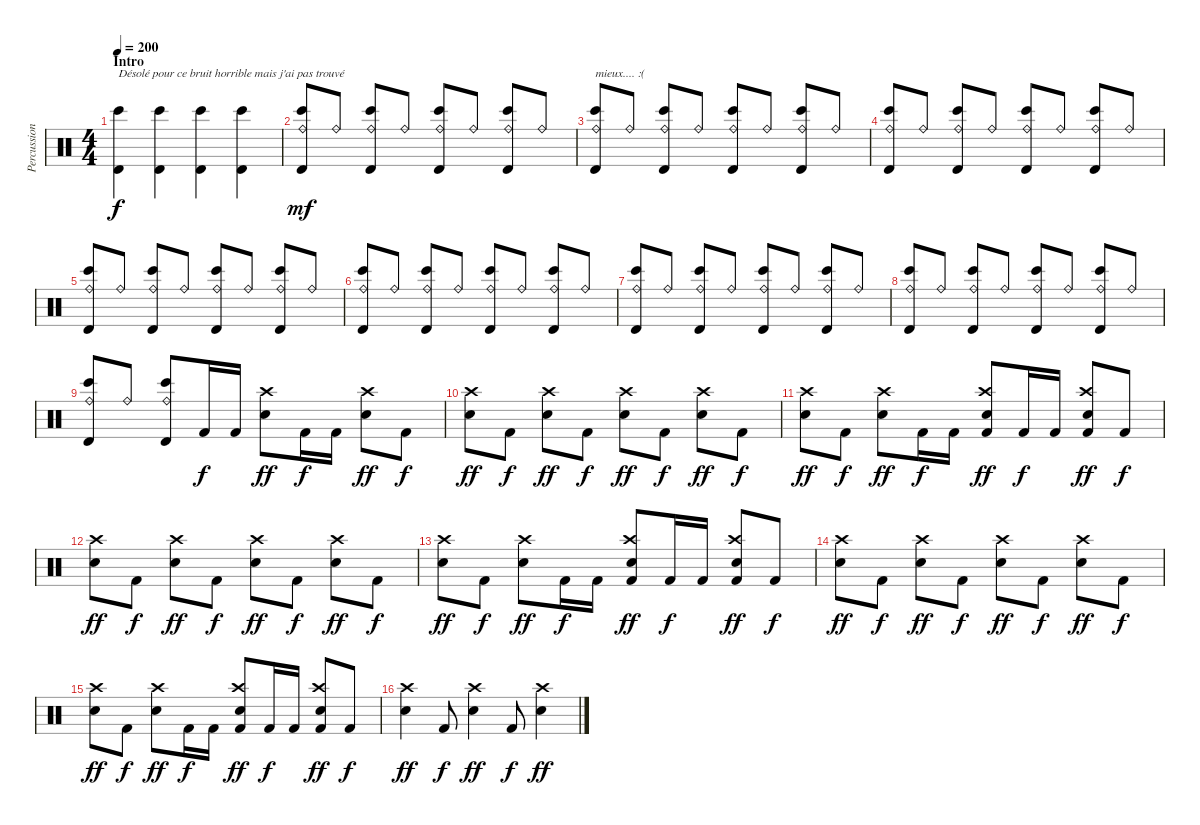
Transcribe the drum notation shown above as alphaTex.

\track ("Percussions" "Percussion") {instrument percussion}
\staff {score}
\articulation defaults
\ts (4 4)
\section ("" "Intro")
\tempo 200
\clef neutral
\ks c
("Timbale high (hit)" "Bongo High (hit)").4{txt "Désolé pour ce bruit horrible mais j'ai pas trouvé" dy f} ("Timbale high (hit)" "Bongo High (hit)").4 ("Timbale high (hit)" "Bongo High (hit)").4 ("Timbale high (hit)" "Bongo High (hit)").4 |
("Ride (bell)" "Timbale high (hit)" "Bongo High (hit)").8{dy mf} "Ride (bell)".8 ("Ride (bell)" "Timbale high (hit)" "Bongo High (hit)").8 "Ride (bell)".8 ("Ride (bell)" "Timbale high (hit)" "Bongo High (hit)").8 "Ride (bell)".8 ("Ride (bell)" "Timbale high (hit)" "Bongo High (hit)").8 "Ride (bell)".8 |
("Ride (bell)" "Timbale high (hit)" "Bongo High (hit)").8{txt "mieux.... :("} "Ride (bell)".8 ("Ride (bell)" "Timbale high (hit)" "Bongo High (hit)").8 "Ride (bell)".8 ("Ride (bell)" "Timbale high (hit)" "Bongo High (hit)").8 "Ride (bell)".8 ("Ride (bell)" "Timbale high (hit)" "Bongo High (hit)").8 "Ride (bell)".8 |
("Ride (bell)" "Timbale high (hit)" "Bongo High (hit)").8 "Ride (bell)".8 ("Ride (bell)" "Timbale high (hit)" "Bongo High (hit)").8 "Ride (bell)".8 ("Ride (bell)" "Timbale high (hit)" "Bongo High (hit)").8 "Ride (bell)".8 ("Ride (bell)" "Timbale high (hit)" "Bongo High (hit)").8 "Ride (bell)".8 |
("Ride (bell)" "Timbale high (hit)" "Bongo High (hit)").8 "Ride (bell)".8 ("Ride (bell)" "Timbale high (hit)" "Bongo High (hit)").8 "Ride (bell)".8 ("Ride (bell)" "Timbale high (hit)" "Bongo High (hit)").8 "Ride (bell)".8 ("Ride (bell)" "Timbale high (hit)" "Bongo High (hit)").8 "Ride (bell)".8 |
("Ride (bell)" "Timbale high (hit)" "Bongo High (hit)").8 "Ride (bell)".8 ("Ride (bell)" "Timbale high (hit)" "Bongo High (hit)").8 "Ride (bell)".8 ("Ride (bell)" "Timbale high (hit)" "Bongo High (hit)").8 "Ride (bell)".8 ("Ride (bell)" "Timbale high (hit)" "Bongo High (hit)").8 "Ride (bell)".8 |
("Ride (bell)" "Timbale high (hit)" "Bongo High (hit)").8 "Ride (bell)".8 ("Ride (bell)" "Timbale high (hit)" "Bongo High (hit)").8 "Ride (bell)".8 ("Ride (bell)" "Timbale high (hit)" "Bongo High (hit)").8 "Ride (bell)".8 ("Ride (bell)" "Timbale high (hit)" "Bongo High (hit)").8 "Ride (bell)".8 |
("Ride (bell)" "Timbale high (hit)" "Bongo High (hit)").8 "Ride (bell)".8 ("Ride (bell)" "Timbale high (hit)" "Bongo High (hit)").8 "Ride (bell)".8 ("Ride (bell)" "Timbale high (hit)" "Bongo High (hit)").8 "Ride (bell)".8 ("Ride (bell)" "Timbale high (hit)" "Bongo High (hit)").8 "Ride (bell)".8 |
("Ride (bell)" "Timbale high (hit)" "Bongo High (hit)").8 "Ride (bell)".8 ("Ride (bell)" "Timbale high (hit)" "Bongo High (hit)").8 "Kick (hit) 2".16{dy f} "Kick (hit) 2".16 ("Crash high (hit)" "Electric Snare (hit)").8{dy ff} "Kick (hit) 2".16{dy f} "Kick (hit) 2".16 ("Crash high (hit)" "Electric Snare (hit)").8{dy ff} "Kick (hit) 2".8{dy f} |
("Crash high (hit)" "Electric Snare (hit)").8{dy ff} "Kick (hit) 2".8{dy f} ("Crash high (hit)" "Electric Snare (hit)").8{dy ff} "Kick (hit) 2".8{dy f} ("Crash high (hit)" "Electric Snare (hit)").8{dy ff} "Kick (hit) 2".8{dy f} ("Crash high (hit)" "Electric Snare (hit)").8{dy ff} "Kick (hit) 2".8{dy f} |
("Crash high (hit)" "Electric Snare (hit)").8{dy ff} "Kick (hit) 2".8{dy f} ("Crash high (hit)" "Electric Snare (hit)").8{dy ff} "Kick (hit) 2".16{dy f} "Kick (hit) 2".16 ("Crash high (hit)" "Electric Snare (hit)" "Kick (hit) 2").8{dy ff} "Kick (hit) 2".16{dy f} "Kick (hit) 2".16 ("Crash high (hit)" "Electric Snare (hit)" "Kick (hit) 2").8{dy ff} "Kick (hit) 2".8{dy f} |
("Crash high (hit)" "Electric Snare (hit)").8{dy ff} "Kick (hit) 2".8{dy f} ("Crash high (hit)" "Electric Snare (hit)").8{dy ff} "Kick (hit) 2".8{dy f} ("Crash high (hit)" "Electric Snare (hit)").8{dy ff} "Kick (hit) 2".8{dy f} ("Crash high (hit)" "Electric Snare (hit)").8{dy ff} "Kick (hit) 2".8{dy f} |
("Crash high (hit)" "Electric Snare (hit)").8{dy ff} "Kick (hit) 2".8{dy f} ("Crash high (hit)" "Electric Snare (hit)").8{dy ff} "Kick (hit) 2".16{dy f} "Kick (hit) 2".16 ("Crash high (hit)" "Electric Snare (hit)" "Kick (hit) 2").8{dy ff} "Kick (hit) 2".16{dy f} "Kick (hit) 2".16 ("Crash high (hit)" "Electric Snare (hit)" "Kick (hit) 2").8{dy ff} "Kick (hit) 2".8{dy f} |
("Crash high (hit)" "Electric Snare (hit)").8{dy ff} "Kick (hit) 2".8{dy f} ("Crash high (hit)" "Electric Snare (hit)").8{dy ff} "Kick (hit) 2".8{dy f} ("Crash high (hit)" "Electric Snare (hit)").8{dy ff} "Kick (hit) 2".8{dy f} ("Crash high (hit)" "Electric Snare (hit)").8{dy ff} "Kick (hit) 2".8{dy f} |
("Crash high (hit)" "Electric Snare (hit)").8{dy ff} "Kick (hit) 2".8{dy f} ("Crash high (hit)" "Electric Snare (hit)").8{dy ff} "Kick (hit) 2".16{dy f} "Kick (hit) 2".16 ("Crash high (hit)" "Electric Snare (hit)" "Kick (hit) 2").8{dy ff} "Kick (hit) 2".16{dy f} "Kick (hit) 2".16 ("Crash high (hit)" "Electric Snare (hit)" "Kick (hit) 2").8{dy ff} "Kick (hit) 2".8{dy f} |
("Crash high (hit)" "Electric Snare (hit)").4{dy ff} "Kick (hit) 2".8{dy f} ("Crash high (hit)" "Electric Snare (hit)").4{dy ff} "Kick (hit) 2".8{dy f} ("Crash high (hit)" "Electric Snare (hit)").4{dy ff}
